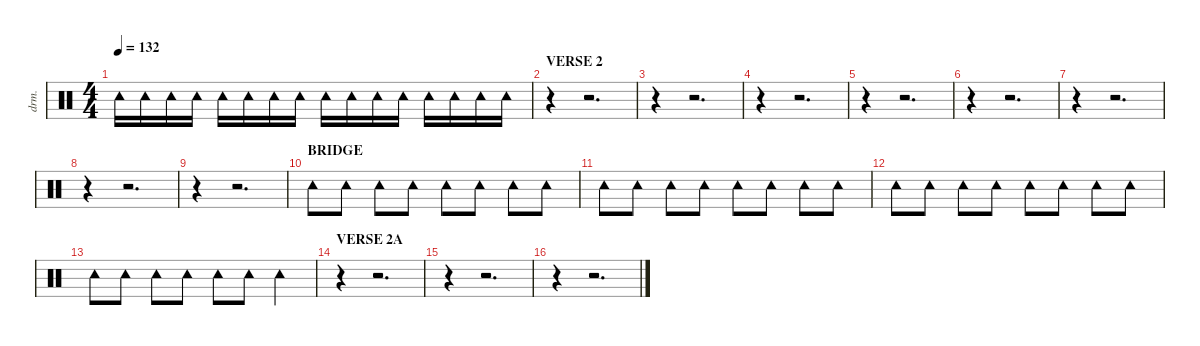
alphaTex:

\defaultSystemsLayout 4
\hideDynamics
\bracketExtendMode nobrackets
\otherSystemsTrackNameOrientation horizontal
\track ("Percussion" "drm.") {instrument percussion}
\staff {score}
\articulation defaults
\ts (4 4)
\tempo 132
\clef neutral
\ks c "Tambourine (hit)".16{dy f beam Down} "Tambourine (hit)".16{beam Down} "Tambourine (hit)".16{beam Down} "Tambourine (hit)".16{beam Down} "Tambourine (hit)".16{dy fff beam Down} "Tambourine (hit)".16{dy f beam Down} "Tambourine (hit)".16{beam Down} "Tambourine (hit)".16{beam Down} "Tambourine (hit)".16{beam Down} "Tambourine (hit)".16{beam Down} "Tambourine (hit)".16{beam Down} "Tambourine (hit)".16{beam Down} "Tambourine (hit)".16{dy fff beam Down} "Tambourine (hit)".16{dy f beam Down} "Tambourine (hit)".16{beam Down} "Tambourine (hit)".16{beam Down}
|
\section ("" "VERSE 2")
r.4{beam Down} r.2{d beam Down} |
r.4{beam Down} r.2{d beam Down} |
r.4{beam Down} r.2{d beam Down} |
r.4{beam Down} r.2{d beam Down} |
r.4{beam Down} r.2{d beam Down} |
r.4{beam Down} r.2{d beam Down} |
r.4{beam Down} r.2{d beam Down} |
r.4{beam Down} r.2{d beam Down} |
\section ("" "BRIDGE")
"Tambourine (hit)".8{beam Down} "Tambourine (hit)".8{beam Down} "Tambourine (hit)".8{dy fff beam Down} "Tambourine (hit)".8{dy f beam Down} "Tambourine (hit)".8{beam Down} "Tambourine (hit)".8{beam Down} "Tambourine (hit)".8{dy fff beam Down} "Tambourine (hit)".8{dy f beam Down} |
"Tambourine (hit)".8{beam Down} "Tambourine (hit)".8{beam Down} "Tambourine (hit)".8{dy fff beam Down} "Tambourine (hit)".8{dy f beam Down} "Tambourine (hit)".8{beam Down} "Tambourine (hit)".8{beam Down} "Tambourine (hit)".8{dy fff beam Down} "Tambourine (hit)".8{dy f beam Down} |
"Tambourine (hit)".8{beam Down} "Tambourine (hit)".8{beam Down} "Tambourine (hit)".8{dy fff beam Down} "Tambourine (hit)".8{dy f beam Down} "Tambourine (hit)".8{beam Down} "Tambourine (hit)".8{beam Down} "Tambourine (hit)".8{dy fff beam Down} "Tambourine (hit)".8{dy f beam Down} |
"Tambourine (hit)".8{beam Down} "Tambourine (hit)".8{beam Down} "Tambourine (hit)".8{dy fff beam Down} "Tambourine (hit)".8{dy f beam Down} "Tambourine (hit)".8{beam Down} "Tambourine (hit)".8{beam Down} "Tambourine (hit)".4{dy fff beam Down} |
\section ("" "VERSE 2A")
r.4{beam Down} r.2{d beam Down} |
r.4{beam Down} r.2{d beam Down} |
r.4{beam Down} r.2{d beam Down}
